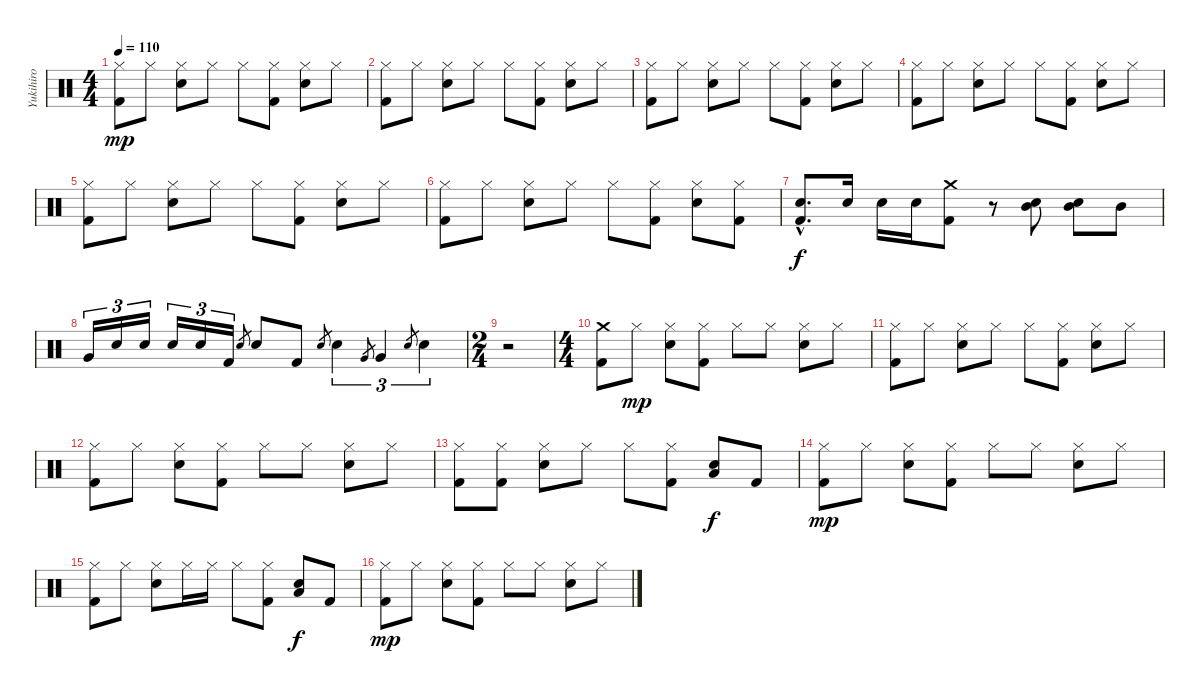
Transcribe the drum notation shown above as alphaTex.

\track ("Yukihiro " "Yukihiro ") {instrument percussion}
\staff {score}
\articulation defaults
\ts (4 4)
\tempo 110
\clef neutral
\ks c
("Hi-Hat (closed)" "Kick (hit) 2").8{dy mp} "Hi-Hat (closed)".8 ("Hi-Hat (closed)" "Electric Snare (hit)").8 "Hi-Hat (closed)".8 "Hi-Hat (closed)".8 ("Hi-Hat (closed)" "Kick (hit) 2").8 ("Hi-Hat (closed)" "Electric Snare (hit)").8 "Hi-Hat (closed)".8 |
("Hi-Hat (closed)" "Kick (hit) 2").8 "Hi-Hat (closed)".8 ("Hi-Hat (closed)" "Electric Snare (hit)").8 "Hi-Hat (closed)".8 "Hi-Hat (closed)".8 ("Hi-Hat (closed)" "Kick (hit) 2").8 ("Hi-Hat (closed)" "Electric Snare (hit)").8 "Hi-Hat (closed)".8 |
("Hi-Hat (closed)" "Kick (hit) 2").8 "Hi-Hat (closed)".8 ("Hi-Hat (closed)" "Electric Snare (hit)").8 "Hi-Hat (closed)".8 "Hi-Hat (closed)".8 ("Hi-Hat (closed)" "Kick (hit) 2").8 ("Hi-Hat (closed)" "Electric Snare (hit)").8 "Hi-Hat (closed)".8 |
("Hi-Hat (closed)" "Kick (hit) 2").8 "Hi-Hat (closed)".8 ("Hi-Hat (closed)" "Electric Snare (hit)").8 "Hi-Hat (closed)".8 "Hi-Hat (closed)".8 ("Hi-Hat (closed)" "Kick (hit) 2").8 ("Hi-Hat (closed)" "Electric Snare (hit)").8 "Hi-Hat (closed)".8 |
("Hi-Hat (closed)" "Kick (hit) 2").8 "Hi-Hat (closed)".8 ("Hi-Hat (closed)" "Electric Snare (hit)").8 "Hi-Hat (closed)".8 "Hi-Hat (closed)".8 ("Hi-Hat (closed)" "Kick (hit) 2").8 ("Hi-Hat (closed)" "Electric Snare (hit)").8 "Hi-Hat (closed)".8 |
("Hi-Hat (closed)" "Kick (hit) 2").8 "Hi-Hat (closed)".8 ("Hi-Hat (closed)" "Electric Snare (hit)").8 "Hi-Hat (closed)".8 "Hi-Hat (closed)".8 ("Hi-Hat (closed)" "Kick (hit) 2").8 ("Hi-Hat (closed)" "Electric Snare (hit)").8 ("Hi-Hat (closed)" "Kick (hit) 2").8 |
("Electric Snare (hit)"{hac} "Kick (hit) 2"{hac}).8{d dy f} "Electric Snare (hit)".16 "Electric Snare (hit)".16 "Electric Snare (hit)".16 ("Crash medium (hit)" "Kick (hit) 2").8 r.8 ("Mid Tom (hit)" "Electric Snare (hit)").8 ("Mid Tom (hit)" "Electric Snare (hit)").8 "Mid Tom (hit)".8 |
"Very Low Tom (hit)".16{tu (3 2)} "Electric Snare (hit)".16{tu (3 2)} "Electric Snare (hit)".16{tu (3 2)} "Electric Snare (hit)".16{tu (3 2)} "Electric Snare (hit)".16{tu (3 2)} "Kick (hit) 2".16{tu (3 2)} "Electric Snare (hit)".8{gr} "Electric Snare (hit)".8 "Kick (hit) 2".8 "Electric Snare (hit)".8{gr} "Electric Snare (hit)".4{tu (3 2)} "Very Low Tom (hit)".8{gr} "Very Low Tom (hit)".4{tu (3 2)} "Electric Snare (hit)".8{gr} "Electric Snare (hit)".4{tu (3 2)} |
\ts (2 4)
r.2 |
\ts (4 4)
("Crash medium (hit)" "Kick (hit) 2").8 "Hi-Hat (closed)".8{dy mp} ("Hi-Hat (closed)" "Electric Snare (hit)").8 ("Hi-Hat (closed)" "Kick (hit) 2").8 "Hi-Hat (closed)".8 "Hi-Hat (closed)".8 ("Hi-Hat (closed)" "Electric Snare (hit)").8 "Hi-Hat (closed)".8 |
("Hi-Hat (closed)" "Kick (hit) 2").8 "Hi-Hat (closed)".8 ("Hi-Hat (closed)" "Electric Snare (hit)").8 "Hi-Hat (closed)".8 "Hi-Hat (closed)".8 ("Hi-Hat (closed)" "Kick (hit) 2").8 ("Hi-Hat (closed)" "Electric Snare (hit)").8 "Hi-Hat (closed)".8 |
("Hi-Hat (closed)" "Kick (hit) 2").8 "Hi-Hat (closed)".8 ("Hi-Hat (closed)" "Electric Snare (hit)").8 ("Hi-Hat (closed)" "Kick (hit) 2").8 "Hi-Hat (closed)".8 "Hi-Hat (closed)".8 ("Hi-Hat (closed)" "Electric Snare (hit)").8 "Hi-Hat (closed)".8 |
("Hi-Hat (closed)" "Kick (hit) 2").8 ("Hi-Hat (closed)" "Kick (hit) 2").8 ("Hi-Hat (closed)" "Electric Snare (hit)").8 "Hi-Hat (closed)".8 "Hi-Hat (closed)".8 ("Hi-Hat (closed)" "Kick (hit) 2").8 ("Electric Snare (hit)" "Low Floor Tom (hit)").8{dy f} "Kick (hit) 2".8 |
("Hi-Hat (closed)" "Kick (hit) 2").8{dy mp} "Hi-Hat (closed)".8 ("Hi-Hat (closed)" "Electric Snare (hit)").8 ("Hi-Hat (closed)" "Kick (hit) 2").8 "Hi-Hat (closed)".8 "Hi-Hat (closed)".8 ("Hi-Hat (closed)" "Electric Snare (hit)").8 "Hi-Hat (closed)".8 |
("Hi-Hat (closed)" "Kick (hit) 2").8 "Hi-Hat (closed)".8 ("Hi-Hat (closed)" "Electric Snare (hit)").8 "Hi-Hat (closed)".16 "Hi-Hat (closed)".16 "Hi-Hat (closed)".8 ("Hi-Hat (closed)" "Kick (hit) 2").8 ("Electric Snare (hit)" "Low Floor Tom (hit)").8{dy f} "Kick (hit) 2".8 |
("Hi-Hat (closed)" "Kick (hit) 2").8{dy mp} "Hi-Hat (closed)".8 ("Hi-Hat (closed)" "Electric Snare (hit)").8 ("Hi-Hat (closed)" "Kick (hit) 2").8 "Hi-Hat (closed)".8 "Hi-Hat (closed)".8 ("Hi-Hat (closed)" "Electric Snare (hit)").8 "Hi-Hat (closed)".8
